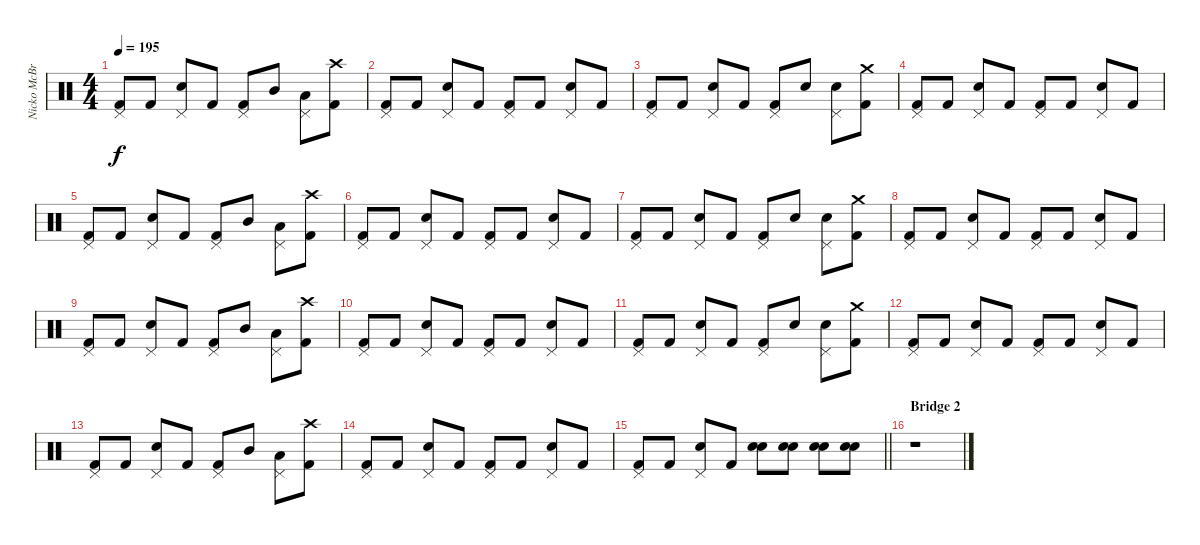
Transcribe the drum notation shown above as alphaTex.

\track ("Nicko McBrain" "Nicko McBr") {instrument percussion}
\staff {score}
\articulation defaults
\ts (4 4)
\tempo 195
\clef neutral
\ks c
("Pedal Hi-Hat (hit)" "Kick (hit) 2").8{dy f} "Kick (hit) 2".8 ("Pedal Hi-Hat (hit)" "Snare (hit) 2").8 "Kick (hit) 2".8 ("Pedal Hi-Hat (hit)" "Kick (hit) 2").8 "Mid Tom (hit)".8 ("Pedal Hi-Hat (hit)" "Low Tom (hit)").8 ("Crash high (hit)" "Kick (hit) 2").8 |
("Pedal Hi-Hat (hit)" "Kick (hit) 2").8 "Kick (hit) 2".8 ("Pedal Hi-Hat (hit)" "Snare (hit) 2").8 "Kick (hit) 2".8 ("Pedal Hi-Hat (hit)" "Kick (hit) 2").8 "Kick (hit) 2".8 ("Pedal Hi-Hat (hit)" "Snare (hit) 2").8 "Kick (hit) 2".8 |
("Pedal Hi-Hat (hit)" "Kick (hit) 2").8 "Kick (hit) 2".8 ("Pedal Hi-Hat (hit)" "Snare (hit) 2").8 "Kick (hit) 2".8 ("Pedal Hi-Hat (hit)" "Kick (hit) 2").8 "Snare (hit) 2".8 ("Pedal Hi-Hat (hit)" "Snare (hit) 2").8 ("Crash medium (hit)" "Kick (hit) 2").8 |
("Pedal Hi-Hat (hit)" "Kick (hit) 2").8 "Kick (hit) 2".8 ("Pedal Hi-Hat (hit)" "Snare (hit) 2").8 "Kick (hit) 2".8 ("Pedal Hi-Hat (hit)" "Kick (hit) 2").8 "Kick (hit) 2".8 ("Pedal Hi-Hat (hit)" "Snare (hit) 2").8 "Kick (hit) 2".8 |
("Pedal Hi-Hat (hit)" "Kick (hit) 2").8 "Kick (hit) 2".8 ("Pedal Hi-Hat (hit)" "Snare (hit) 2").8 "Kick (hit) 2".8 ("Pedal Hi-Hat (hit)" "Kick (hit) 2").8 "Mid Tom (hit)".8 ("Pedal Hi-Hat (hit)" "Low Tom (hit)").8 ("Crash high (hit)" "Kick (hit) 2").8 |
("Pedal Hi-Hat (hit)" "Kick (hit) 2").8 "Kick (hit) 2".8 ("Pedal Hi-Hat (hit)" "Snare (hit) 2").8 "Kick (hit) 2".8 ("Pedal Hi-Hat (hit)" "Kick (hit) 2").8 "Kick (hit) 2".8 ("Pedal Hi-Hat (hit)" "Snare (hit) 2").8 "Kick (hit) 2".8 |
("Pedal Hi-Hat (hit)" "Kick (hit) 2").8 "Kick (hit) 2".8 ("Pedal Hi-Hat (hit)" "Snare (hit) 2").8 "Kick (hit) 2".8 ("Pedal Hi-Hat (hit)" "Kick (hit) 2").8 "Snare (hit) 2".8 ("Pedal Hi-Hat (hit)" "Snare (hit) 2").8 ("Crash medium (hit)" "Kick (hit) 2").8 |
("Pedal Hi-Hat (hit)" "Kick (hit) 2").8 "Kick (hit) 2".8 ("Pedal Hi-Hat (hit)" "Snare (hit) 2").8 "Kick (hit) 2".8 ("Pedal Hi-Hat (hit)" "Kick (hit) 2").8 "Kick (hit) 2".8 ("Pedal Hi-Hat (hit)" "Snare (hit) 2").8 "Kick (hit) 2".8 |
("Pedal Hi-Hat (hit)" "Kick (hit) 2").8 "Kick (hit) 2".8 ("Pedal Hi-Hat (hit)" "Snare (hit) 2").8 "Kick (hit) 2".8 ("Pedal Hi-Hat (hit)" "Kick (hit) 2").8 "Mid Tom (hit)".8 ("Pedal Hi-Hat (hit)" "Low Tom (hit)").8 ("Crash high (hit)" "Kick (hit) 2").8 |
("Pedal Hi-Hat (hit)" "Kick (hit) 2").8 "Kick (hit) 2".8 ("Pedal Hi-Hat (hit)" "Snare (hit) 2").8 "Kick (hit) 2".8 ("Pedal Hi-Hat (hit)" "Kick (hit) 2").8 "Kick (hit) 2".8 ("Pedal Hi-Hat (hit)" "Snare (hit) 2").8 "Kick (hit) 2".8 |
("Pedal Hi-Hat (hit)" "Kick (hit) 2").8 "Kick (hit) 2".8 ("Pedal Hi-Hat (hit)" "Snare (hit) 2").8 "Kick (hit) 2".8 ("Pedal Hi-Hat (hit)" "Kick (hit) 2").8 "Snare (hit) 2".8 ("Pedal Hi-Hat (hit)" "Snare (hit) 2").8 ("Crash medium (hit)" "Kick (hit) 2").8 |
("Pedal Hi-Hat (hit)" "Kick (hit) 2").8 "Kick (hit) 2".8 ("Pedal Hi-Hat (hit)" "Snare (hit) 2").8 "Kick (hit) 2".8 ("Pedal Hi-Hat (hit)" "Kick (hit) 2").8 "Kick (hit) 2".8 ("Pedal Hi-Hat (hit)" "Snare (hit) 2").8 "Kick (hit) 2".8 |
("Pedal Hi-Hat (hit)" "Kick (hit) 2").8 "Kick (hit) 2".8 ("Pedal Hi-Hat (hit)" "Snare (hit) 2").8 "Kick (hit) 2".8 ("Pedal Hi-Hat (hit)" "Kick (hit) 2").8 "Mid Tom (hit)".8 ("Pedal Hi-Hat (hit)" "Low Tom (hit)").8 ("Crash high (hit)" "Kick (hit) 2").8 |
("Pedal Hi-Hat (hit)" "Kick (hit) 2").8 "Kick (hit) 2".8 ("Pedal Hi-Hat (hit)" "Snare (hit) 2").8 "Kick (hit) 2".8 ("Pedal Hi-Hat (hit)" "Kick (hit) 2").8 "Kick (hit) 2".8 ("Pedal Hi-Hat (hit)" "Snare (hit) 2").8 "Kick (hit) 2".8 |
\barLineRight lightlight
("Pedal Hi-Hat (hit)" "Kick (hit) 2").8 "Kick (hit) 2".8 ("Pedal Hi-Hat (hit)" "Snare (hit) 2").8 "Kick (hit) 2".8 ("Snare (hit) 2" "Snare (hit) 2").8 ("Snare (hit) 2" "Snare (hit) 2").8 ("Snare (hit) 2" "Snare (hit) 2").8 ("Snare (hit) 2" "Snare (hit) 2").8 |
\section ("" "Bridge 2")
r.1
